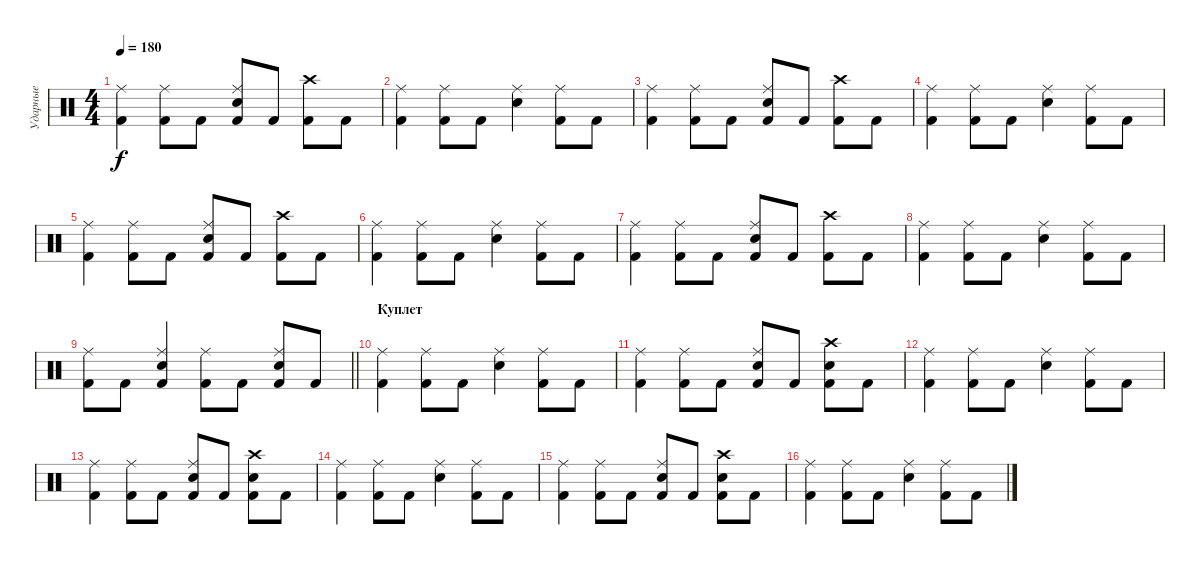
\track ("Ударные" "Ударные") {instrument percussion}
\staff {score}
\articulation defaults
\ts (4 4)
\tempo 180
\clef neutral
\ks c
("Kick (hit) 2" "Ride (middle)").4{dy f} ("Kick (hit) 2" "Ride (middle)").8 "Kick (hit) 2".8 ("Kick (hit) 2" "Snare (hit) 2" "Ride (middle)").8 "Kick (hit) 2".8 ("Kick (hit) 2" "Crash high (hit)").8 "Kick (hit) 2".8 |
("Kick (hit) 2" "Ride (middle)").4 ("Kick (hit) 2" "Ride (middle)").8 "Kick (hit) 2".8 ("Snare (hit) 2" "Ride (middle)").4 ("Kick (hit) 2" "Ride (middle)").8 "Kick (hit) 2".8 |
("Kick (hit) 2" "Ride (middle)").4 ("Kick (hit) 2" "Ride (middle)").8 "Kick (hit) 2".8 ("Kick (hit) 2" "Snare (hit) 2" "Ride (middle)").8 "Kick (hit) 2".8 ("Kick (hit) 2" "Crash high (hit)").8 "Kick (hit) 2".8 |
("Kick (hit) 2" "Ride (middle)").4 ("Kick (hit) 2" "Ride (middle)").8 "Kick (hit) 2".8 ("Snare (hit) 2" "Ride (middle)").4 ("Kick (hit) 2" "Ride (middle)").8 "Kick (hit) 2".8 |
("Kick (hit) 2" "Ride (middle)").4 ("Kick (hit) 2" "Ride (middle)").8 "Kick (hit) 2".8 ("Kick (hit) 2" "Snare (hit) 2" "Ride (middle)").8 "Kick (hit) 2".8 ("Kick (hit) 2" "Crash high (hit)").8 "Kick (hit) 2".8 |
("Kick (hit) 2" "Ride (middle)").4 ("Kick (hit) 2" "Ride (middle)").8 "Kick (hit) 2".8 ("Snare (hit) 2" "Ride (middle)").4 ("Kick (hit) 2" "Ride (middle)").8 "Kick (hit) 2".8 |
("Kick (hit) 2" "Ride (middle)").4 ("Kick (hit) 2" "Ride (middle)").8 "Kick (hit) 2".8 ("Kick (hit) 2" "Snare (hit) 2" "Ride (middle)").8 "Kick (hit) 2".8 ("Kick (hit) 2" "Crash high (hit)").8 "Kick (hit) 2".8 |
("Kick (hit) 2" "Ride (middle)").4 ("Kick (hit) 2" "Ride (middle)").8 "Kick (hit) 2".8 ("Snare (hit) 2" "Ride (middle)").4 ("Kick (hit) 2" "Ride (middle)").8 "Kick (hit) 2".8 |
\barLineRight lightlight
("Kick (hit) 2" "Ride (middle)").8 "Kick (hit) 2".8 ("Kick (hit) 2" "Snare (hit) 2" "Ride (middle)").4 ("Kick (hit) 2" "Ride (middle)").8 "Kick (hit) 2".8 ("Kick (hit) 2" "Snare (hit) 2" "Ride (middle)").8 "Kick (hit) 2".8 |
\section ("" "Куплет")
("Kick (hit) 2" "Ride (middle)").4 ("Kick (hit) 2" "Ride (middle)").8 "Kick (hit) 2".8 ("Snare (hit) 2" "Ride (middle)").4 ("Kick (hit) 2" "Ride (middle)").8 "Kick (hit) 2".8 |
("Kick (hit) 2" "Ride (middle)").4 ("Kick (hit) 2" "Ride (middle)").8 "Kick (hit) 2".8 ("Kick (hit) 2" "Snare (hit) 2" "Ride (middle)").8 "Kick (hit) 2".8 ("Kick (hit) 2" "Snare (hit) 2" "Crash high (hit)").8 "Kick (hit) 2".8 |
("Kick (hit) 2" "Ride (middle)").4 ("Kick (hit) 2" "Ride (middle)").8 "Kick (hit) 2".8 ("Snare (hit) 2" "Ride (middle)").4 ("Kick (hit) 2" "Ride (middle)").8 "Kick (hit) 2".8 |
("Kick (hit) 2" "Ride (middle)").4 ("Kick (hit) 2" "Ride (middle)").8 "Kick (hit) 2".8 ("Kick (hit) 2" "Snare (hit) 2" "Ride (middle)").8 "Kick (hit) 2".8 ("Kick (hit) 2" "Snare (hit) 2" "Crash high (hit)").8 "Kick (hit) 2".8 |
("Kick (hit) 2" "Ride (middle)").4 ("Kick (hit) 2" "Ride (middle)").8 "Kick (hit) 2".8 ("Snare (hit) 2" "Ride (middle)").4 ("Kick (hit) 2" "Ride (middle)").8 "Kick (hit) 2".8 |
("Kick (hit) 2" "Ride (middle)").4 ("Kick (hit) 2" "Ride (middle)").8 "Kick (hit) 2".8 ("Kick (hit) 2" "Snare (hit) 2" "Ride (middle)").8 "Kick (hit) 2".8 ("Kick (hit) 2" "Snare (hit) 2" "Crash high (hit)").8 "Kick (hit) 2".8 |
("Kick (hit) 2" "Ride (middle)").4 ("Kick (hit) 2" "Ride (middle)").8 "Kick (hit) 2".8 ("Snare (hit) 2" "Ride (middle)").4 ("Kick (hit) 2" "Ride (middle)").8 "Kick (hit) 2".8
